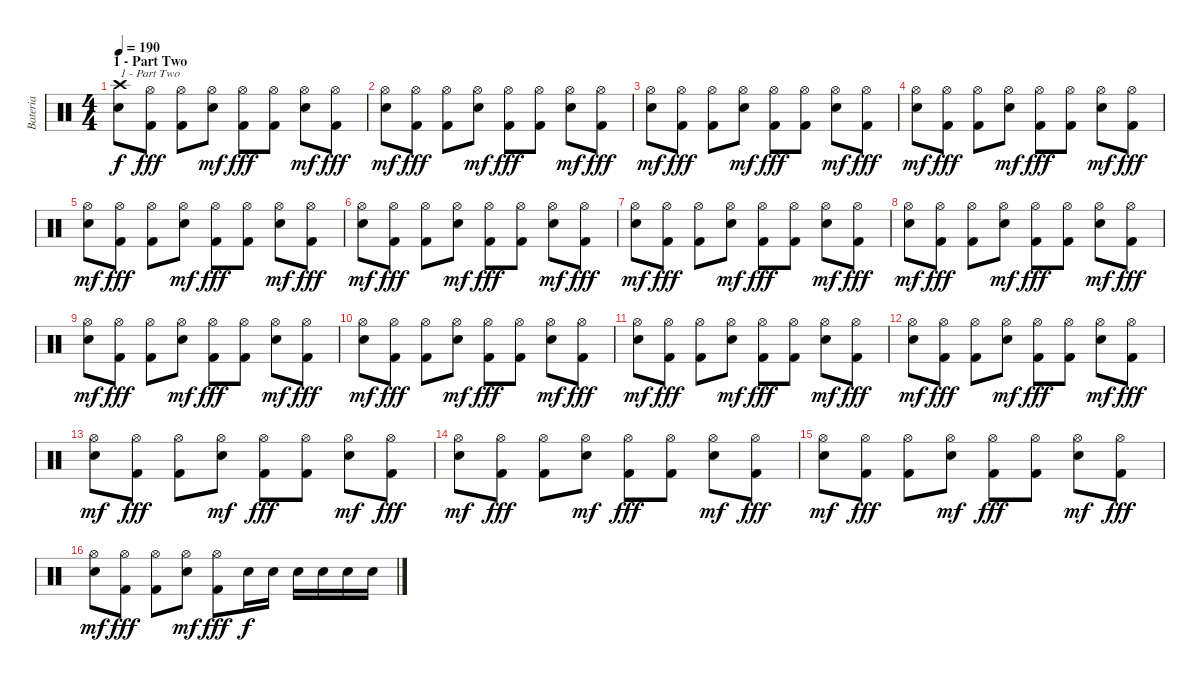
\track ("Bateria" "Bateria") {instrument percussion}
\staff {score}
\articulation defaults
\ts (4 4)
\section ("" "1 - Part Two")
\tempo 190
\clef neutral
\ks c
("Crash high (hit)" "Electric Snare (hit)").8{txt "1 - Part Two" dy f} ("Hi-Hat (open)" "Kick (hit) 2").8{dy fff} ("Hi-Hat (open)" "Kick (hit) 2").8 ("Hi-Hat (open)" "Electric Snare (hit)").8{dy mf} ("Hi-Hat (open)" "Kick (hit) 2").8{dy fff} ("Hi-Hat (open)" "Kick (hit) 2").8 ("Hi-Hat (open)" "Electric Snare (hit)").8{dy mf} ("Hi-Hat (open)" "Kick (hit) 2").8{dy fff} |
("Hi-Hat (open)" "Electric Snare (hit)").8{dy mf} ("Hi-Hat (open)" "Kick (hit) 2").8{dy fff} ("Hi-Hat (open)" "Kick (hit) 2").8 ("Hi-Hat (open)" "Electric Snare (hit)").8{dy mf} ("Hi-Hat (open)" "Kick (hit) 2").8{dy fff} ("Hi-Hat (open)" "Kick (hit) 2").8 ("Hi-Hat (open)" "Electric Snare (hit)").8{dy mf} ("Hi-Hat (open)" "Kick (hit) 2").8{dy fff} |
("Hi-Hat (open)" "Electric Snare (hit)").8{dy mf} ("Hi-Hat (open)" "Kick (hit) 2").8{dy fff} ("Hi-Hat (open)" "Kick (hit) 2").8 ("Hi-Hat (open)" "Electric Snare (hit)").8{dy mf} ("Hi-Hat (open)" "Kick (hit) 2").8{dy fff} ("Hi-Hat (open)" "Kick (hit) 2").8 ("Hi-Hat (open)" "Electric Snare (hit)").8{dy mf} ("Hi-Hat (open)" "Kick (hit) 2").8{dy fff} |
("Hi-Hat (open)" "Electric Snare (hit)").8{dy mf} ("Hi-Hat (open)" "Kick (hit) 2").8{dy fff} ("Hi-Hat (open)" "Kick (hit) 2").8 ("Hi-Hat (open)" "Electric Snare (hit)").8{dy mf} ("Hi-Hat (open)" "Kick (hit) 2").8{dy fff} ("Hi-Hat (open)" "Kick (hit) 2").8 ("Hi-Hat (open)" "Electric Snare (hit)").8{dy mf} ("Hi-Hat (open)" "Kick (hit) 2").8{dy fff} |
("Hi-Hat (open)" "Electric Snare (hit)").8{dy mf} ("Hi-Hat (open)" "Kick (hit) 2").8{dy fff} ("Hi-Hat (open)" "Kick (hit) 2").8 ("Hi-Hat (open)" "Electric Snare (hit)").8{dy mf} ("Hi-Hat (open)" "Kick (hit) 2").8{dy fff} ("Hi-Hat (open)" "Kick (hit) 2").8 ("Hi-Hat (open)" "Electric Snare (hit)").8{dy mf} ("Hi-Hat (open)" "Kick (hit) 2").8{dy fff} |
("Hi-Hat (open)" "Electric Snare (hit)").8{dy mf} ("Hi-Hat (open)" "Kick (hit) 2").8{dy fff} ("Hi-Hat (open)" "Kick (hit) 2").8 ("Hi-Hat (open)" "Electric Snare (hit)").8{dy mf} ("Hi-Hat (open)" "Kick (hit) 2").8{dy fff} ("Hi-Hat (open)" "Kick (hit) 2").8 ("Hi-Hat (open)" "Electric Snare (hit)").8{dy mf} ("Hi-Hat (open)" "Kick (hit) 2").8{dy fff} |
("Hi-Hat (open)" "Electric Snare (hit)").8{dy mf} ("Hi-Hat (open)" "Kick (hit) 2").8{dy fff} ("Hi-Hat (open)" "Kick (hit) 2").8 ("Hi-Hat (open)" "Electric Snare (hit)").8{dy mf} ("Hi-Hat (open)" "Kick (hit) 2").8{dy fff} ("Hi-Hat (open)" "Kick (hit) 2").8 ("Hi-Hat (open)" "Electric Snare (hit)").8{dy mf} ("Hi-Hat (open)" "Kick (hit) 2").8{dy fff} |
("Hi-Hat (open)" "Electric Snare (hit)").8{dy mf} ("Hi-Hat (open)" "Kick (hit) 2").8{dy fff} ("Hi-Hat (open)" "Kick (hit) 2").8 ("Hi-Hat (open)" "Electric Snare (hit)").8{dy mf} ("Hi-Hat (open)" "Kick (hit) 2").8{dy fff} ("Hi-Hat (open)" "Kick (hit) 2").8 ("Hi-Hat (open)" "Electric Snare (hit)").8{dy mf} ("Hi-Hat (open)" "Kick (hit) 2").8{dy fff} |
("Hi-Hat (open)" "Electric Snare (hit)").8{dy mf} ("Hi-Hat (open)" "Kick (hit) 2").8{dy fff} ("Hi-Hat (open)" "Kick (hit) 2").8 ("Hi-Hat (open)" "Electric Snare (hit)").8{dy mf} ("Hi-Hat (open)" "Kick (hit) 2").8{dy fff} ("Hi-Hat (open)" "Kick (hit) 2").8 ("Hi-Hat (open)" "Electric Snare (hit)").8{dy mf} ("Hi-Hat (open)" "Kick (hit) 2").8{dy fff} |
("Hi-Hat (open)" "Electric Snare (hit)").8{dy mf} ("Hi-Hat (open)" "Kick (hit) 2").8{dy fff} ("Hi-Hat (open)" "Kick (hit) 2").8 ("Hi-Hat (open)" "Electric Snare (hit)").8{dy mf} ("Hi-Hat (open)" "Kick (hit) 2").8{dy fff} ("Hi-Hat (open)" "Kick (hit) 2").8 ("Hi-Hat (open)" "Electric Snare (hit)").8{dy mf} ("Hi-Hat (open)" "Kick (hit) 2").8{dy fff} |
("Hi-Hat (open)" "Electric Snare (hit)").8{dy mf} ("Hi-Hat (open)" "Kick (hit) 2").8{dy fff} ("Hi-Hat (open)" "Kick (hit) 2").8 ("Hi-Hat (open)" "Electric Snare (hit)").8{dy mf} ("Hi-Hat (open)" "Kick (hit) 2").8{dy fff} ("Hi-Hat (open)" "Kick (hit) 2").8 ("Hi-Hat (open)" "Electric Snare (hit)").8{dy mf} ("Hi-Hat (open)" "Kick (hit) 2").8{dy fff} |
("Hi-Hat (open)" "Electric Snare (hit)").8{dy mf} ("Hi-Hat (open)" "Kick (hit) 2").8{dy fff} ("Hi-Hat (open)" "Kick (hit) 2").8 ("Hi-Hat (open)" "Electric Snare (hit)").8{dy mf} ("Hi-Hat (open)" "Kick (hit) 2").8{dy fff} ("Hi-Hat (open)" "Kick (hit) 2").8 ("Hi-Hat (open)" "Electric Snare (hit)").8{dy mf} ("Hi-Hat (open)" "Kick (hit) 2").8{dy fff} |
("Hi-Hat (open)" "Electric Snare (hit)").8{dy mf} ("Hi-Hat (open)" "Kick (hit) 2").8{dy fff} ("Hi-Hat (open)" "Kick (hit) 2").8 ("Hi-Hat (open)" "Electric Snare (hit)").8{dy mf} ("Hi-Hat (open)" "Kick (hit) 2").8{dy fff} ("Hi-Hat (open)" "Kick (hit) 2").8 ("Hi-Hat (open)" "Electric Snare (hit)").8{dy mf} ("Hi-Hat (open)" "Kick (hit) 2").8{dy fff} |
("Hi-Hat (open)" "Electric Snare (hit)").8{dy mf} ("Hi-Hat (open)" "Kick (hit) 2").8{dy fff} ("Hi-Hat (open)" "Kick (hit) 2").8 ("Hi-Hat (open)" "Electric Snare (hit)").8{dy mf} ("Hi-Hat (open)" "Kick (hit) 2").8{dy fff} ("Hi-Hat (open)" "Kick (hit) 2").8 ("Hi-Hat (open)" "Electric Snare (hit)").8{dy mf} ("Hi-Hat (open)" "Kick (hit) 2").8{dy fff} |
("Hi-Hat (open)" "Electric Snare (hit)").8{dy mf} ("Hi-Hat (open)" "Kick (hit) 2").8{dy fff} ("Hi-Hat (open)" "Kick (hit) 2").8 ("Hi-Hat (open)" "Electric Snare (hit)").8{dy mf} ("Hi-Hat (open)" "Kick (hit) 2").8{dy fff} ("Hi-Hat (open)" "Kick (hit) 2").8 ("Hi-Hat (open)" "Electric Snare (hit)").8{dy mf} ("Hi-Hat (open)" "Kick (hit) 2").8{dy fff} |
("Hi-Hat (open)" "Electric Snare (hit)").8{dy mf} ("Hi-Hat (open)" "Kick (hit) 2").8{dy fff} ("Hi-Hat (open)" "Kick (hit) 2").8 ("Hi-Hat (open)" "Electric Snare (hit)").8{dy mf} ("Hi-Hat (open)" "Kick (hit) 2").8{dy fff} "Electric Snare (hit)".16{dy f} "Electric Snare (hit)".16 "Electric Snare (hit)".16 "Electric Snare (hit)".16 "Electric Snare (hit)".16 "Electric Snare (hit)".16
